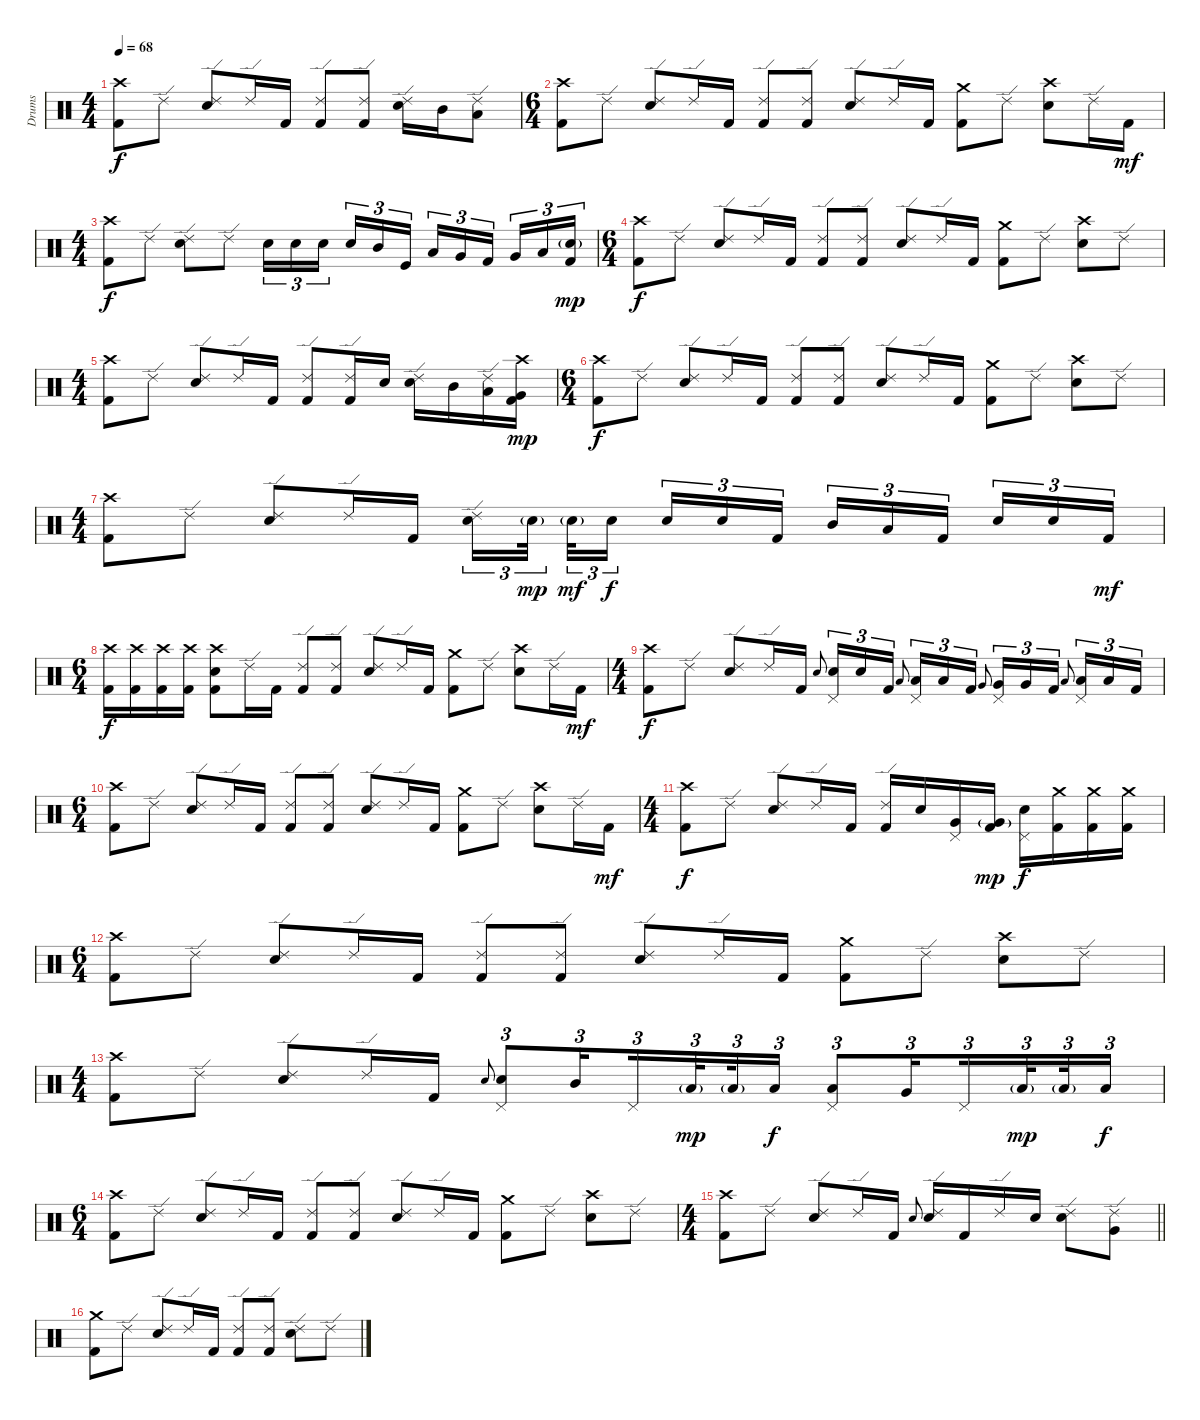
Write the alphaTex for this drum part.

\track ("Drums" "Drums") {instrument percussion}
\staff {score}
\articulation defaults
\ts (4 4)
\tempo 68
\clef neutral
\ks aminor
("Crash high (hit)" "Kick (hit) 2").8{dy f} "Ride (edge) 2".8 ("Ride (edge) 2" "Snare (hit) 2").8 "Ride (edge) 2".16 "Kick (hit) 2".16 ("Ride (edge) 2" "Kick (hit) 2").8 ("Ride (edge) 2" "Kick (hit) 2").8 ("Ride (edge) 2" "Snare (hit) 2").16 "Mid Tom (hit)".16 ("Ride (edge) 2" "Low Tom (hit)").8 |
\ts (6 4)
("Crash high (hit)" "Kick (hit) 2").8 "Ride (edge) 2".8 ("Ride (edge) 2" "Snare (hit) 2").8 "Ride (edge) 2".16 "Kick (hit) 2".16 ("Ride (edge) 2" "Kick (hit) 2").8 ("Ride (edge) 2" "Kick (hit) 2").8 ("Ride (edge) 2" "Snare (hit) 2").8 "Ride (edge) 2".16 "Kick (hit) 2".16 ("Crash medium (hit)" "Kick (hit) 2").8 "Ride (edge) 2".8 ("Crash high (hit)" "Snare (hit) 2").8 "Ride (edge) 2".16 "Kick (hit) 2".16{dy mf} |
\ts (4 4)
("Crash high (hit)" "Kick (hit) 2").8{dy f} "Ride (edge) 2".8 ("Ride (edge) 2" "Snare (hit) 2").8 "Ride (edge) 2".8 "Snare (hit) 2".16{tu (3 2)} "Snare (hit) 2".16{tu (3 2)} "Snare (hit) 2".16{tu (3 2) beam splitsecondary} "Snare (hit) 2".16{tu (3 2)} "Mid Tom (hit)".16{tu (3 2)} "Kick (hit)".16{tu (3 2)} "Low Tom (hit)".16{tu (3 2)} "Very Low Tom (hit)".16{tu (3 2)} "Kick (hit) 2".16{tu (3 2) beam splitsecondary} "Very Low Tom (hit)".16{tu (3 2)} "Low Floor Tom (hit)".16{tu (3 2)} ("Snare (hit) 2"{g} "Kick (hit) 2").16{tu (3 2) dy mp} |
\ts (6 4)
("Crash high (hit)" "Kick (hit) 2").8{dy f} "Ride (edge) 2".8 ("Ride (edge) 2" "Snare (hit) 2").8 "Ride (edge) 2".16 "Kick (hit) 2".16 ("Ride (edge) 2" "Kick (hit) 2").8 ("Ride (edge) 2" "Kick (hit) 2").8 ("Ride (edge) 2" "Snare (hit) 2").8 "Ride (edge) 2".16 "Kick (hit) 2".16 ("Crash medium (hit)" "Kick (hit) 2").8 "Ride (edge) 2".8 ("Crash high (hit)" "Snare (hit) 2").8 "Ride (edge) 2".8 |
\ts (4 4)
("Crash high (hit)" "Kick (hit) 2").8 "Ride (edge) 2".8 ("Ride (edge) 2" "Snare (hit) 2").8 "Ride (edge) 2".16 "Kick (hit) 2".16 ("Ride (edge) 2" "Kick (hit) 2").8 ("Ride (edge) 2" "Kick (hit) 2").16 "Snare (hit) 2".16 ("Ride (edge) 2" "Snare (hit) 2").16 "Mid Tom (hit)".16 ("Ride (edge) 2" "Low Tom (hit)").16 ("Crash high (hit)" "Very Low Tom (hit)" "Kick (hit) 2").16{dy mp} |
\ts (6 4)
("Crash high (hit)" "Kick (hit) 2").8{dy f} "Ride (edge) 2".8 ("Ride (edge) 2" "Snare (hit) 2").8 "Ride (edge) 2".16 "Kick (hit) 2".16 ("Ride (edge) 2" "Kick (hit) 2").8 ("Ride (edge) 2" "Kick (hit) 2").8 ("Ride (edge) 2" "Snare (hit) 2").8 "Ride (edge) 2".16 "Kick (hit) 2".16 ("Crash medium (hit)" "Kick (hit) 2").8 "Ride (edge) 2".8 ("Crash high (hit)" "Snare (hit) 2").8 "Ride (edge) 2".8 |
\ts (4 4)
("Crash high (hit)" "Kick (hit) 2").8 "Ride (edge) 2".8 ("Ride (edge) 2" "Snare (hit) 2").8 "Ride (edge) 2".16 "Kick (hit) 2".16 ("Ride (edge) 2" "Snare (hit) 2").16{tu (3 2)} "Snare (hit) 2"{g}.32{tu (3 2) dy mp beam splitsecondary} "Snare (hit) 2"{g}.32{tu (3 2) dy mf} "Snare (hit) 2".16{tu (3 2) dy f beam splitsecondary} "Snare (hit) 2".16{tu (3 2)} "Snare (hit) 2".16{tu (3 2)} "Kick (hit) 2".16{tu (3 2)} "Mid Tom (hit)".16{tu (3 2)} "Low Tom (hit)".16{tu (3 2)} "Kick (hit) 2".16{tu (3 2) beam splitsecondary} "Snare (hit) 2".16{tu (3 2)} "Snare (hit) 2".16{tu (3 2)} "Kick (hit) 2".16{tu (3 2) dy mf} |
\ts (6 4)
("Crash high (hit)" "Kick (hit) 2").16{dy f} ("Crash high (hit)" "Kick (hit) 2").16 ("Crash high (hit)" "Kick (hit) 2").16 ("Crash high (hit)" "Kick (hit) 2").16 ("Crash high (hit)" "Snare (hit) 2" "Kick (hit) 2").8 "Ride (edge) 2".16 "Kick (hit) 2".16 ("Ride (edge) 2" "Kick (hit) 2").8 ("Ride (edge) 2" "Kick (hit) 2").8 ("Ride (edge) 2" "Snare (hit) 2").8 "Ride (edge) 2".16 "Kick (hit) 2".16 ("Crash medium (hit)" "Kick (hit) 2").8 "Ride (edge) 2".8 ("Crash high (hit)" "Snare (hit) 2").8 "Ride (edge) 2".16 "Kick (hit) 2".16{dy mf} |
\ts (4 4)
("Crash high (hit)" "Kick (hit) 2").8{dy f} "Ride (edge) 2".8 ("Ride (edge) 2" "Snare (hit) 2").8 "Ride (edge) 2".16 "Kick (hit) 2".16 "Snare (hit) 2".8{gr onbeat} ("Pedal Hi-Hat (hit)" "Snare (hit) 2").16{tu (3 2)} "Snare (hit) 2".16{tu (3 2)} "Kick (hit) 2".16{tu (3 2)} "Low Tom (hit)".8{gr onbeat beam splitsecondary} ("Pedal Hi-Hat (hit)" "Low Tom (hit)").16{tu (3 2)} "Low Tom (hit)".16{tu (3 2)} "Kick (hit) 2".16{tu (3 2)} "Very Low Tom (hit)".8{gr onbeat} ("Pedal Hi-Hat (hit)" "Very Low Tom (hit)").16{tu (3 2)} "Very Low Tom (hit)".16{tu (3 2)} "Kick (hit) 2".16{tu (3 2)} "Low Floor Tom (hit)".8{gr onbeat beam splitsecondary} ("Pedal Hi-Hat (hit)" "Low Floor Tom (hit)").16{tu (3 2)} "Low Floor Tom (hit)".16{tu (3 2)} "Kick (hit) 2".16{tu (3 2)} |
\ts (6 4)
("Crash high (hit)" "Kick (hit) 2").8 "Ride (edge) 2".8 ("Ride (edge) 2" "Snare (hit) 2").8 "Ride (edge) 2".16 "Kick (hit) 2".16 ("Ride (edge) 2" "Kick (hit) 2").8 ("Ride (edge) 2" "Kick (hit) 2").8 ("Ride (edge) 2" "Snare (hit) 2").8 "Ride (edge) 2".16 "Kick (hit) 2".16 ("Crash medium (hit)" "Kick (hit) 2").8 "Ride (edge) 2".8 ("Crash high (hit)" "Snare (hit) 2").8 "Ride (edge) 2".16 "Kick (hit) 2".16{dy mf} |
\ts (4 4)
("Crash high (hit)" "Kick (hit) 2").8{dy f} "Ride (edge) 2".8 ("Ride (edge) 2" "Snare (hit) 2").8 "Ride (edge) 2".16 "Kick (hit) 2".16 ("Ride (edge) 2" "Kick (hit) 2").16 "Snare (hit) 2".16 ("Pedal Hi-Hat (hit)" "Very Low Tom (hit)").16 ("Very Low Tom (hit)"{g} "Kick (hit) 2").16{dy mp} ("Pedal Hi-Hat (hit)" "Snare (hit) 2").16{dy f} ("Crash medium (hit)" "Kick (hit) 2").16 ("Crash medium (hit)" "Kick (hit) 2").16 ("Crash medium (hit)" "Kick (hit) 2").16 |
\ts (6 4)
("Crash high (hit)" "Kick (hit) 2").8 "Ride (edge) 2".8 ("Ride (edge) 2" "Snare (hit) 2").8 "Ride (edge) 2".16 "Kick (hit) 2".16 ("Ride (edge) 2" "Kick (hit) 2").8 ("Ride (edge) 2" "Kick (hit) 2").8 ("Ride (edge) 2" "Snare (hit) 2").8 "Ride (edge) 2".16 "Kick (hit) 2".16 ("Crash medium (hit)" "Kick (hit) 2").8 "Ride (edge) 2".8 ("Crash high (hit)" "Snare (hit) 2").8 "Ride (edge) 2".8 |
\ts (4 4)
("Crash high (hit)" "Kick (hit) 2").8 "Ride (edge) 2".8 ("Ride (edge) 2" "Snare (hit) 2").8 "Ride (edge) 2".16 "Kick (hit) 2".16 "Snare (hit) 2".8{gr onbeat} ("Pedal Hi-Hat (hit)" "Snare (hit) 2").8{tu (3 2)} "Mid Tom (hit)".16{tu (3 2) beam splitsecondary} "Pedal Hi-Hat (hit)".16{tu (3 2)} "Low Tom (hit)"{g}.32{tu (3 2) dy mp beam splitsecondary} "Low Tom (hit)"{g}.32{tu (3 2)} "Low Tom (hit)".16{tu (3 2) dy f} ("Pedal Hi-Hat (hit)" "Low Tom (hit)").8{tu (3 2)} "Very Low Tom (hit)".16{tu (3 2) beam splitsecondary} "Pedal Hi-Hat (hit)".16{tu (3 2)} "Low Floor Tom (hit)"{g}.32{tu (3 2) dy mp beam splitsecondary} "Low Floor Tom (hit)"{g}.32{tu (3 2)} "Low Floor Tom (hit)".16{tu (3 2) dy f} |
\ts (6 4)
("Crash high (hit)" "Kick (hit) 2").8 "Ride (edge) 2".8 ("Ride (edge) 2" "Snare (hit) 2").8 "Ride (edge) 2".16 "Kick (hit) 2".16 ("Ride (edge) 2" "Kick (hit) 2").8 ("Ride (edge) 2" "Kick (hit) 2").8 ("Ride (edge) 2" "Snare (hit) 2").8 "Ride (edge) 2".16 "Kick (hit) 2".16 ("Crash medium (hit)" "Kick (hit) 2").8 "Ride (edge) 2".8 ("Crash high (hit)" "Snare (hit) 2").8 "Ride (edge) 2".8 |
\ts (4 4)
\barLineRight lightlight
("Crash high (hit)" "Kick (hit) 2").8 "Ride (edge) 2".8 ("Ride (edge) 2" "Snare (hit) 2").8 "Ride (edge) 2".16 "Kick (hit) 2".16 "Snare (hit) 2".8{gr onbeat} ("Ride (edge) 2" "Snare (hit) 2").16 "Kick (hit) 2".16 "Ride (edge) 2".16 "Snare (hit) 2".16 ("Ride (edge) 2" "Snare (hit) 2").8 ("Ride (edge) 2" "Very Low Tom (hit)").8 |
\section ("" "")
("Crash medium (hit)" "Kick (hit) 2").8 "Ride (edge) 2".8 ("Ride (edge) 2" "Snare (hit) 2").8 "Ride (edge) 2".16 "Kick (hit) 2".16 ("Ride (edge) 2" "Kick (hit) 2").8 ("Ride (edge) 2" "Kick (hit) 2").8 ("Ride (edge) 2" "Snare (hit) 2").8 "Ride (edge) 2".8
